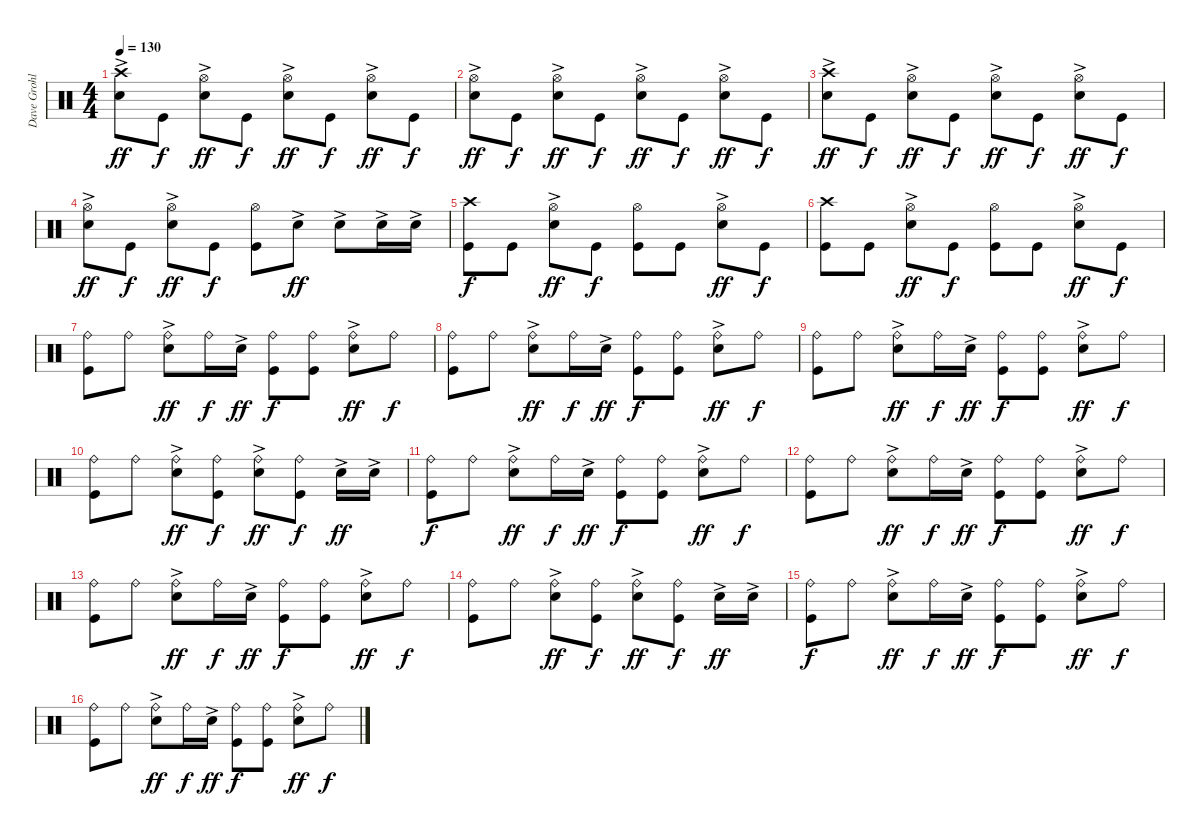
\track ("Dave Grohl" "Dave Grohl") {instrument percussion}
\staff {score}
\articulation defaults
\ts (4 4)
\tempo 130
\clef neutral
\ks c
("Crash high (hit)" "Electric Snare (hit)"{ac}).8{dy ff} "Kick (hit)".8{dy f} ("Hi-Hat (open)" "Electric Snare (hit)"{ac}).8{dy ff} "Kick (hit)".8{dy f} ("Hi-Hat (open)" "Electric Snare (hit)"{ac}).8{dy ff} "Kick (hit)".8{dy f} ("Hi-Hat (open)" "Electric Snare (hit)"{ac}).8{dy ff} "Kick (hit)".8{dy f} |
("Hi-Hat (open)" "Electric Snare (hit)"{ac}).8{dy ff} "Kick (hit)".8{dy f} ("Hi-Hat (open)" "Electric Snare (hit)"{ac}).8{dy ff} "Kick (hit)".8{dy f} ("Hi-Hat (open)" "Electric Snare (hit)"{ac}).8{dy ff} "Kick (hit)".8{dy f} ("Hi-Hat (open)" "Electric Snare (hit)"{ac}).8{dy ff} "Kick (hit)".8{dy f} |
("Crash high (hit)" "Electric Snare (hit)"{ac}).8{dy ff} "Kick (hit)".8{dy f} ("Hi-Hat (open)" "Electric Snare (hit)"{ac}).8{dy ff} "Kick (hit)".8{dy f} ("Hi-Hat (open)" "Electric Snare (hit)"{ac}).8{dy ff} "Kick (hit)".8{dy f} ("Hi-Hat (open)" "Electric Snare (hit)"{ac}).8{dy ff} "Kick (hit)".8{dy f} |
("Hi-Hat (open)" "Electric Snare (hit)"{ac}).8{dy ff} "Kick (hit)".8{dy f} ("Hi-Hat (open)" "Electric Snare (hit)"{ac}).8{dy ff} "Kick (hit)".8{dy f} ("Hi-Hat (open)" "Kick (hit)").8 "Electric Snare (hit)"{ac}.8{dy ff} "Electric Snare (hit)"{ac}.8 "Electric Snare (hit)"{ac}.16 "Electric Snare (hit)"{ac}.16 |
("Crash high (hit)" "Kick (hit)").8{dy f} "Kick (hit)".8 ("Hi-Hat (open)" "Electric Snare (hit)"{ac}).8{dy ff} "Kick (hit)".8{dy f} ("Hi-Hat (open)" "Kick (hit)").8 "Kick (hit)".8 ("Hi-Hat (open)" "Electric Snare (hit)"{ac}).8{dy ff} "Kick (hit)".8{dy f} |
("Crash high (hit)" "Kick (hit)").8 "Kick (hit)".8 ("Hi-Hat (open)" "Electric Snare (hit)"{ac}).8{dy ff} "Kick (hit)".8{dy f} ("Hi-Hat (open)" "Kick (hit)").8 "Kick (hit)".8 ("Hi-Hat (open)" "Electric Snare (hit)"{ac}).8{dy ff} "Kick (hit)".8{dy f} |
("Ride (bell)" "Kick (hit)").8 "Ride (bell)".8 ("Ride (bell)" "Electric Snare (hit)"{ac}).8{dy ff} "Ride (bell)".16{dy f} "Electric Snare (hit)"{ac}.16{dy ff} ("Ride (bell)" "Kick (hit)").8{dy f} ("Ride (bell)" "Kick (hit)").8 ("Ride (bell)" "Electric Snare (hit)"{ac}).8{dy ff} "Ride (bell)".8{dy f} |
("Ride (bell)" "Kick (hit)").8 "Ride (bell)".8 ("Ride (bell)" "Electric Snare (hit)"{ac}).8{dy ff} "Ride (bell)".16{dy f} "Electric Snare (hit)"{ac}.16{dy ff} ("Ride (bell)" "Kick (hit)").8{dy f} ("Ride (bell)" "Kick (hit)").8 ("Ride (bell)" "Electric Snare (hit)"{ac}).8{dy ff} "Ride (bell)".8{dy f} |
("Ride (bell)" "Kick (hit)").8 "Ride (bell)".8 ("Ride (bell)" "Electric Snare (hit)"{ac}).8{dy ff} "Ride (bell)".16{dy f} "Electric Snare (hit)"{ac}.16{dy ff} ("Ride (bell)" "Kick (hit)").8{dy f} ("Ride (bell)" "Kick (hit)").8 ("Ride (bell)" "Electric Snare (hit)"{ac}).8{dy ff} "Ride (bell)".8{dy f} |
("Ride (bell)" "Kick (hit)").8 "Ride (bell)".8 ("Ride (bell)" "Electric Snare (hit)"{ac}).8{dy ff} ("Ride (bell)" "Kick (hit)").8{dy f} ("Ride (bell)" "Electric Snare (hit)"{ac}).8{dy ff} ("Ride (bell)" "Kick (hit)").8{dy f} "Electric Snare (hit)"{ac}.16{dy ff} "Electric Snare (hit)"{ac}.16 |
("Ride (bell)" "Kick (hit)").8{dy f} "Ride (bell)".8 ("Ride (bell)" "Electric Snare (hit)"{ac}).8{dy ff} "Ride (bell)".16{dy f} "Electric Snare (hit)"{ac}.16{dy ff} ("Ride (bell)" "Kick (hit)").8{dy f} ("Ride (bell)" "Kick (hit)").8 ("Ride (bell)" "Electric Snare (hit)"{ac}).8{dy ff} "Ride (bell)".8{dy f} |
("Ride (bell)" "Kick (hit)").8 "Ride (bell)".8 ("Ride (bell)" "Electric Snare (hit)"{ac}).8{dy ff} "Ride (bell)".16{dy f} "Electric Snare (hit)"{ac}.16{dy ff} ("Ride (bell)" "Kick (hit)").8{dy f} ("Ride (bell)" "Kick (hit)").8 ("Ride (bell)" "Electric Snare (hit)"{ac}).8{dy ff} "Ride (bell)".8{dy f} |
("Ride (bell)" "Kick (hit)").8 "Ride (bell)".8 ("Ride (bell)" "Electric Snare (hit)"{ac}).8{dy ff} "Ride (bell)".16{dy f} "Electric Snare (hit)"{ac}.16{dy ff} ("Ride (bell)" "Kick (hit)").8{dy f} ("Ride (bell)" "Kick (hit)").8 ("Ride (bell)" "Electric Snare (hit)"{ac}).8{dy ff} "Ride (bell)".8{dy f} |
("Ride (bell)" "Kick (hit)").8 "Ride (bell)".8 ("Ride (bell)" "Electric Snare (hit)"{ac}).8{dy ff} ("Ride (bell)" "Kick (hit)").8{dy f} ("Ride (bell)" "Electric Snare (hit)"{ac}).8{dy ff} ("Ride (bell)" "Kick (hit)").8{dy f} "Electric Snare (hit)"{ac}.16{dy ff} "Electric Snare (hit)"{ac}.16 |
("Ride (bell)" "Kick (hit)").8{dy f} "Ride (bell)".8 ("Ride (bell)" "Electric Snare (hit)"{ac}).8{dy ff} "Ride (bell)".16{dy f} "Electric Snare (hit)"{ac}.16{dy ff} ("Ride (bell)" "Kick (hit)").8{dy f} ("Ride (bell)" "Kick (hit)").8 ("Ride (bell)" "Electric Snare (hit)"{ac}).8{dy ff} "Ride (bell)".8{dy f} |
("Ride (bell)" "Kick (hit)").8 "Ride (bell)".8 ("Ride (bell)" "Electric Snare (hit)"{ac}).8{dy ff} "Ride (bell)".16{dy f} "Electric Snare (hit)"{ac}.16{dy ff} ("Ride (bell)" "Kick (hit)").8{dy f} ("Ride (bell)" "Kick (hit)").8 ("Ride (bell)" "Electric Snare (hit)"{ac}).8{dy ff} "Ride (bell)".8{dy f}
